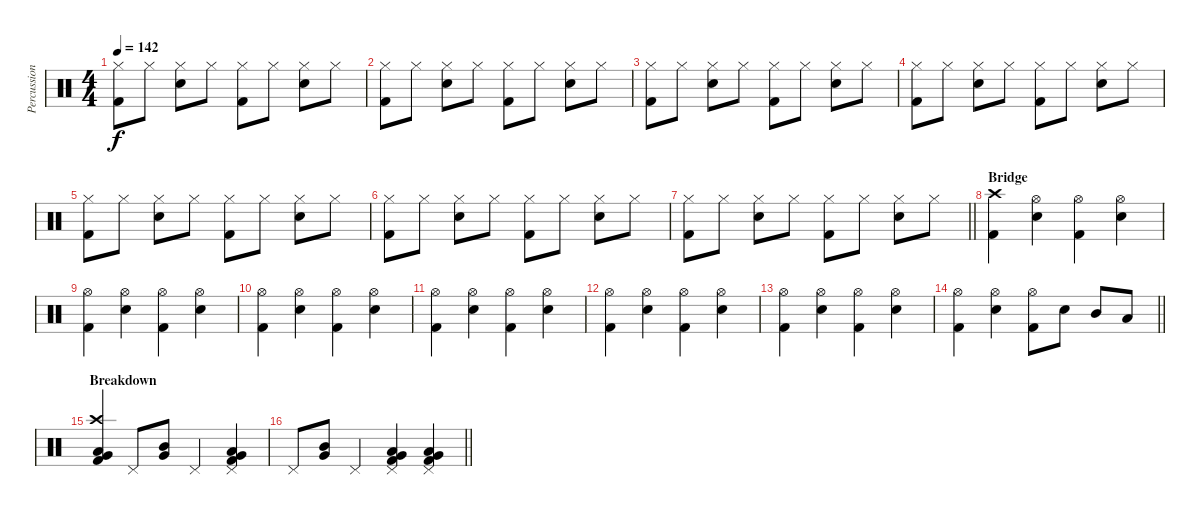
\track ("Percussion" "Percussion") {instrument percussion}
\staff {score}
\articulation defaults
\ts (4 4)
\tempo 142
\clef neutral
\ks c
("Hi-Hat (closed)" "Kick (hit) 2").8{dy f} "Hi-Hat (closed)".8 ("Hi-Hat (closed)" "Snare (hit) 2").8 "Hi-Hat (closed)".8 ("Hi-Hat (closed)" "Kick (hit) 2").8 "Hi-Hat (closed)".8 ("Hi-Hat (closed)" "Snare (hit) 2").8 "Hi-Hat (closed)".8 |
("Hi-Hat (closed)" "Kick (hit) 2").8 "Hi-Hat (closed)".8 ("Hi-Hat (closed)" "Snare (hit) 2").8 "Hi-Hat (closed)".8 ("Hi-Hat (closed)" "Kick (hit) 2").8 "Hi-Hat (closed)".8 ("Hi-Hat (closed)" "Snare (hit) 2").8 "Hi-Hat (closed)".8 |
("Hi-Hat (closed)" "Kick (hit) 2").8 "Hi-Hat (closed)".8 ("Hi-Hat (closed)" "Snare (hit) 2").8 "Hi-Hat (closed)".8 ("Hi-Hat (closed)" "Kick (hit) 2").8 "Hi-Hat (closed)".8 ("Hi-Hat (closed)" "Snare (hit) 2").8 "Hi-Hat (closed)".8 |
("Hi-Hat (closed)" "Kick (hit) 2").8 "Hi-Hat (closed)".8 ("Hi-Hat (closed)" "Snare (hit) 2").8 "Hi-Hat (closed)".8 ("Hi-Hat (closed)" "Kick (hit) 2").8 "Hi-Hat (closed)".8 ("Hi-Hat (closed)" "Snare (hit) 2").8 "Hi-Hat (closed)".8 |
("Hi-Hat (closed)" "Kick (hit) 2").8 "Hi-Hat (closed)".8 ("Hi-Hat (closed)" "Snare (hit) 2").8 "Hi-Hat (closed)".8 ("Hi-Hat (closed)" "Kick (hit) 2").8 "Hi-Hat (closed)".8 ("Hi-Hat (closed)" "Snare (hit) 2").8 "Hi-Hat (closed)".8 |
("Hi-Hat (closed)" "Kick (hit) 2").8 "Hi-Hat (closed)".8 ("Hi-Hat (closed)" "Snare (hit) 2").8 "Hi-Hat (closed)".8 ("Hi-Hat (closed)" "Kick (hit) 2").8 "Hi-Hat (closed)".8 ("Hi-Hat (closed)" "Snare (hit) 2").8 "Hi-Hat (closed)".8 |
\barLineRight lightlight
("Hi-Hat (closed)" "Kick (hit) 2").8 "Hi-Hat (closed)".8 ("Hi-Hat (closed)" "Snare (hit) 2").8 "Hi-Hat (closed)".8 ("Hi-Hat (closed)" "Kick (hit) 2").8 "Hi-Hat (closed)".8 ("Hi-Hat (closed)" "Snare (hit) 2").8 "Hi-Hat (closed)".8 |
\section ("" "Bridge")
("Crash high (hit)" "Kick (hit) 2").4 ("Hi-Hat (open)" "Snare (hit) 2").4 ("Hi-Hat (open)" "Kick (hit) 2").4 ("Hi-Hat (open)" "Snare (hit) 2").4 |
("Hi-Hat (open)" "Kick (hit) 2").4 ("Hi-Hat (open)" "Snare (hit) 2").4 ("Hi-Hat (open)" "Kick (hit) 2").4 ("Hi-Hat (open)" "Snare (hit) 2").4 |
("Hi-Hat (open)" "Kick (hit) 2").4 ("Hi-Hat (open)" "Snare (hit) 2").4 ("Hi-Hat (open)" "Kick (hit) 2").4 ("Hi-Hat (open)" "Snare (hit) 2").4 |
("Hi-Hat (open)" "Kick (hit) 2").4 ("Hi-Hat (open)" "Snare (hit) 2").4 ("Hi-Hat (open)" "Kick (hit) 2").4 ("Hi-Hat (open)" "Snare (hit) 2").4 |
("Hi-Hat (open)" "Kick (hit) 2").4 ("Hi-Hat (open)" "Snare (hit) 2").4 ("Hi-Hat (open)" "Kick (hit) 2").4 ("Hi-Hat (open)" "Snare (hit) 2").4 |
("Hi-Hat (open)" "Kick (hit) 2").4 ("Hi-Hat (open)" "Snare (hit) 2").4 ("Hi-Hat (open)" "Kick (hit) 2").4 ("Hi-Hat (open)" "Snare (hit) 2").4 |
\barLineRight lightlight
("Hi-Hat (open)" "Kick (hit) 2").4 ("Hi-Hat (open)" "Snare (hit) 2").4 ("Hi-Hat (open)" "Kick (hit) 2").8 "Snare (hit) 2".8 "Mid Tom (hit)".8 "Low Tom (hit)".8 |
\section ("" "Breakdown")
("Crash high (hit)" "Low Tom (hit)" "Very Low Tom (hit)" "Kick (hit) 2").4 "Pedal Hi-Hat (hit)".8 ("Mid Tom (hit)" "Very Low Tom (hit)").8 "Pedal Hi-Hat (hit)".4 ("Pedal Hi-Hat (hit)" "Low Tom (hit)" "Very Low Tom (hit)" "Kick (hit) 2").4 |
\barLineRight lightlight "Pedal Hi-Hat (hit)".8
("Mid Tom (hit)" "Very Low Tom (hit)").8 "Pedal Hi-Hat (hit)".4 ("Pedal Hi-Hat (hit)" "Low Tom (hit)" "Very Low Tom (hit)" "Kick (hit) 2").4 ("Pedal Hi-Hat (hit)" "Very Low Tom (hit)" "Low Floor Tom (hit)" "Kick (hit) 2").4
